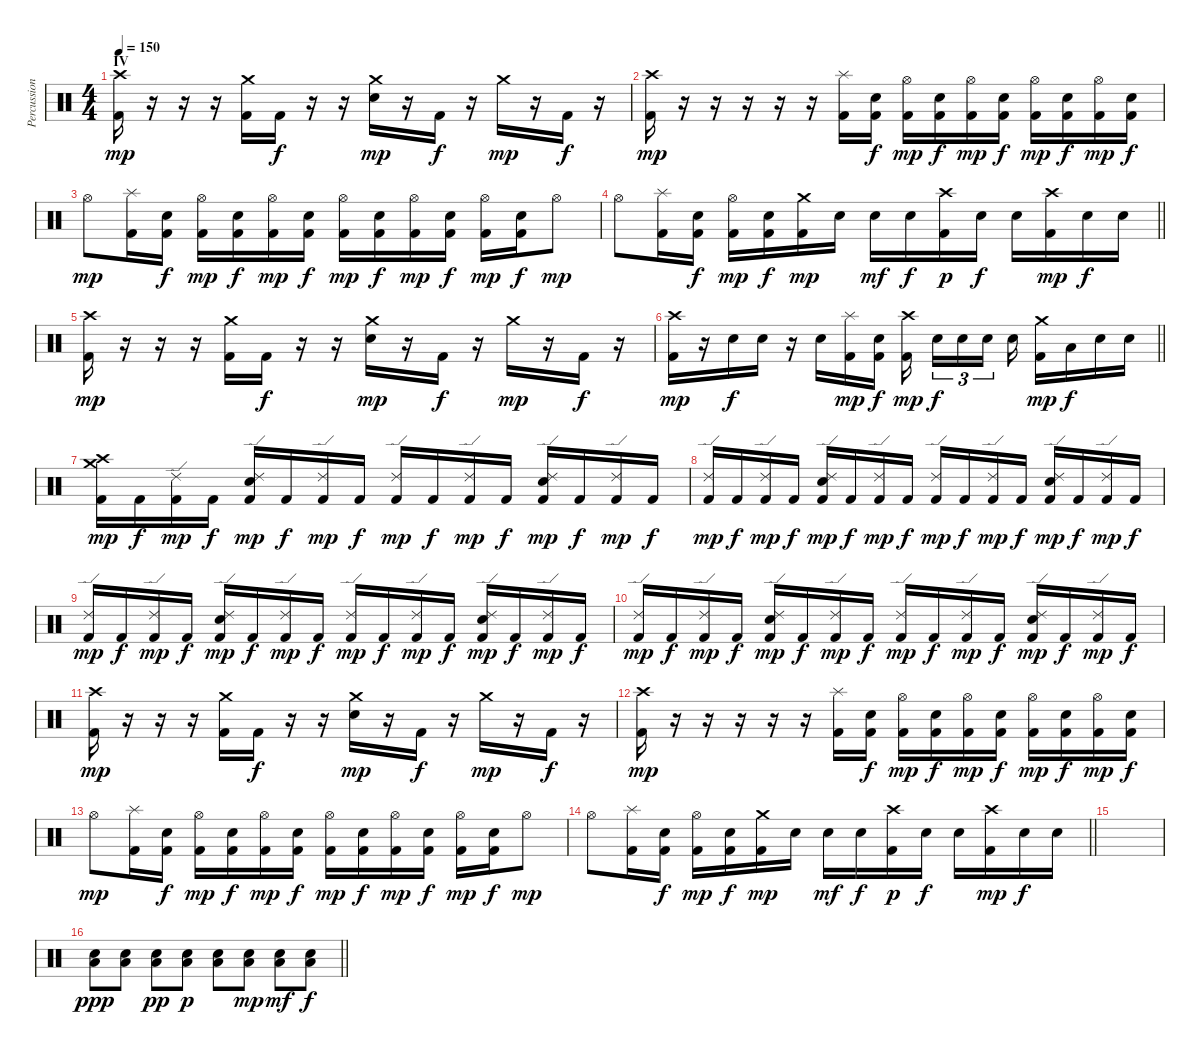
\track ("Percussion" "Percussion") {instrument percussion}
\staff {score}
\articulation defaults
\ts (4 4)
\section ("" "IV")
\tempo 150
\clef neutral
\ks c
("Crash high (hit)" "Kick (hit) 2").16{dy mp} r.16 r.16 r.16 ("Crash medium (hit)" "Kick (hit) 2").16 "Kick (hit) 2".16{dy f} r.16 r.16 ("Crash medium (hit)" "Electric Snare (hit)").16{dy mp} r.16 "Kick (hit) 2".16{dy f} r.16 "Crash medium (hit)".16{dy mp} r.16 "Kick (hit) 2".16{dy f} r.16 |
("Crash high (hit)" "Kick (hit) 2").16{dy mp} r.16 r.16 r.16 r.16 r.16 ("Splash (hit)" "Kick (hit) 2").16 ("Electric Snare (hit)" "Kick (hit) 2").16{dy f} ("Hi-Hat (open)" "Kick (hit) 2").16{dy mp} ("Electric Snare (hit)" "Kick (hit) 2").16{dy f} ("Hi-Hat (open)" "Kick (hit) 2").16{dy mp} ("Electric Snare (hit)" "Kick (hit) 2").16{dy f} ("Hi-Hat (open)" "Kick (hit) 2").16{dy mp} ("Electric Snare (hit)" "Kick (hit) 2").16{dy f} ("Hi-Hat (open)" "Kick (hit) 2").16{dy mp} ("Electric Snare (hit)" "Kick (hit) 2").16{dy f} |
"Hi-Hat (open)".8{dy mp} ("Splash (hit)" "Kick (hit) 2").16 ("Electric Snare (hit)" "Kick (hit) 2").16{dy f} ("Hi-Hat (open)" "Kick (hit) 2").16{dy mp} ("Electric Snare (hit)" "Kick (hit) 2").16{dy f} ("Hi-Hat (open)" "Kick (hit) 2").16{dy mp} ("Electric Snare (hit)" "Kick (hit) 2").16{dy f} ("Hi-Hat (open)" "Kick (hit) 2").16{dy mp} ("Electric Snare (hit)" "Kick (hit) 2").16{dy f} ("Hi-Hat (open)" "Kick (hit) 2").16{dy mp} ("Electric Snare (hit)" "Kick (hit) 2").16{dy f} ("Hi-Hat (open)" "Kick (hit) 2").16{dy mp} ("Electric Snare (hit)" "Kick (hit) 2").16{dy f} "Hi-Hat (open)".8{dy mp} |
\barLineRight lightlight "Hi-Hat (open)".8
("Splash (hit)" "Kick (hit) 2").16 ("Electric Snare (hit)" "Kick (hit) 2").16{dy f} ("Hi-Hat (open)" "Kick (hit) 2").16{dy mp} ("Electric Snare (hit)" "Kick (hit) 2").16{dy f} ("Crash medium (hit)" "Kick (hit) 2").16{dy mp} "Electric Snare (hit)".16 "Electric Snare (hit)".16{dy mf} "Electric Snare (hit)".16{dy f} ("Crash high (hit)" "Kick (hit) 2").16{dy p} "Electric Snare (hit)".16{dy f} "Electric Snare (hit)".16 ("Crash high (hit)" "Kick (hit) 2").16{dy mp} "Electric Snare (hit)".16{dy f} "Electric Snare (hit)".16 |
("Crash high (hit)" "Kick (hit) 2").16{dy mp} r.16 r.16 r.16 ("Crash medium (hit)" "Kick (hit) 2").16 "Kick (hit) 2".16{dy f} r.16 r.16 ("Crash medium (hit)" "Electric Snare (hit)").16{dy mp} r.16 "Kick (hit) 2".16{dy f} r.16 "Crash medium (hit)".16{dy mp} r.16 "Kick (hit) 2".16{dy f} r.16 |
\barLineRight lightlight
("Crash high (hit)" "Kick (hit) 2").16{dy mp} r.16 "Electric Snare (hit)".16{dy f} "Electric Snare (hit)".16 r.16 "Electric Snare (hit)".16 ("Splash (hit)" "Kick (hit) 2").16{dy mp} ("Electric Snare (hit)" "Kick (hit) 2").16{dy f} ("Crash high (hit)" "Kick (hit) 2").16{dy mp beam splitsecondary} "Electric Snare (hit)".16{tu (3 2) dy f} "Electric Snare (hit)".16{tu (3 2)} "Electric Snare (hit)".16{tu (3 2) beam splitsecondary} "Electric Snare (hit)".16 ("Crash medium (hit)" "Kick (hit) 2").16{dy mp} "Low Floor Tom (hit)".16{dy f} "Electric Snare (hit)".16 "Electric Snare (hit)".16 |
("Crash high (hit)" "Crash medium (hit)" "Kick (hit) 2").16{dy mp} "Kick (hit) 2".16{dy f} ("Ride (edge) 2" "Kick (hit) 2").16{dy mp} "Kick (hit) 2".16{dy f} ("Ride (edge) 2" "Electric Snare (hit)" "Kick (hit) 2").16{dy mp} "Kick (hit) 2".16{dy f} ("Ride (edge) 2" "Kick (hit) 2").16{dy mp} "Kick (hit) 2".16{dy f} ("Ride (edge) 2" "Kick (hit) 2").16{dy mp} "Kick (hit) 2".16{dy f} ("Ride (edge) 2" "Kick (hit) 2").16{dy mp} "Kick (hit) 2".16{dy f} ("Ride (edge) 2" "Electric Snare (hit)" "Kick (hit) 2").16{dy mp} "Kick (hit) 2".16{dy f} ("Ride (edge) 2" "Kick (hit) 2").16{dy mp} "Kick (hit) 2".16{dy f} |
("Ride (edge) 2" "Kick (hit) 2").16{dy mp} "Kick (hit) 2".16{dy f} ("Ride (edge) 2" "Kick (hit) 2").16{dy mp} "Kick (hit) 2".16{dy f} ("Ride (edge) 2" "Electric Snare (hit)" "Kick (hit) 2").16{dy mp} "Kick (hit) 2".16{dy f} ("Ride (edge) 2" "Kick (hit) 2").16{dy mp} "Kick (hit) 2".16{dy f} ("Ride (edge) 2" "Kick (hit) 2").16{dy mp} "Kick (hit) 2".16{dy f} ("Ride (edge) 2" "Kick (hit) 2").16{dy mp} "Kick (hit) 2".16{dy f} ("Ride (edge) 2" "Electric Snare (hit)" "Kick (hit) 2").16{dy mp} "Kick (hit) 2".16{dy f} ("Ride (edge) 2" "Kick (hit) 2").16{dy mp} "Kick (hit) 2".16{dy f} |
("Ride (edge) 2" "Kick (hit) 2").16{dy mp} "Kick (hit) 2".16{dy f} ("Ride (edge) 2" "Kick (hit) 2").16{dy mp} "Kick (hit) 2".16{dy f} ("Ride (edge) 2" "Electric Snare (hit)" "Kick (hit) 2").16{dy mp} "Kick (hit) 2".16{dy f} ("Ride (edge) 2" "Kick (hit) 2").16{dy mp} "Kick (hit) 2".16{dy f} ("Ride (edge) 2" "Kick (hit) 2").16{dy mp} "Kick (hit) 2".16{dy f} ("Ride (edge) 2" "Kick (hit) 2").16{dy mp} "Kick (hit) 2".16{dy f} ("Ride (edge) 2" "Electric Snare (hit)" "Kick (hit) 2").16{dy mp} "Kick (hit) 2".16{dy f} ("Ride (edge) 2" "Kick (hit) 2").16{dy mp} "Kick (hit) 2".16{dy f} |
("Ride (edge) 2" "Kick (hit) 2").16{dy mp} "Kick (hit) 2".16{dy f} ("Ride (edge) 2" "Kick (hit) 2").16{dy mp} "Kick (hit) 2".16{dy f} ("Ride (edge) 2" "Electric Snare (hit)" "Kick (hit) 2").16{dy mp} "Kick (hit) 2".16{dy f} ("Ride (edge) 2" "Kick (hit) 2").16{dy mp} "Kick (hit) 2".16{dy f} ("Ride (edge) 2" "Kick (hit) 2").16{dy mp} "Kick (hit) 2".16{dy f} ("Ride (edge) 2" "Kick (hit) 2").16{dy mp} "Kick (hit) 2".16{dy f} ("Ride (edge) 2" "Electric Snare (hit)" "Kick (hit) 2").16{dy mp} "Kick (hit) 2".16{dy f} ("Ride (edge) 2" "Kick (hit) 2").16{dy mp} "Kick (hit) 2".16{dy f} |
("Crash high (hit)" "Kick (hit) 2").16{dy mp} r.16 r.16 r.16 ("Crash medium (hit)" "Kick (hit) 2").16 "Kick (hit) 2".16{dy f} r.16 r.16 ("Crash medium (hit)" "Electric Snare (hit)").16{dy mp} r.16 "Kick (hit) 2".16{dy f} r.16 "Crash medium (hit)".16{dy mp} r.16 "Kick (hit) 2".16{dy f} r.16 |
("Crash high (hit)" "Kick (hit) 2").16{dy mp} r.16 r.16 r.16 r.16 r.16 ("Splash (hit)" "Kick (hit) 2").16 ("Electric Snare (hit)" "Kick (hit) 2").16{dy f} ("Hi-Hat (open)" "Kick (hit) 2").16{dy mp} ("Electric Snare (hit)" "Kick (hit) 2").16{dy f} ("Hi-Hat (open)" "Kick (hit) 2").16{dy mp} ("Electric Snare (hit)" "Kick (hit) 2").16{dy f} ("Hi-Hat (open)" "Kick (hit) 2").16{dy mp} ("Electric Snare (hit)" "Kick (hit) 2").16{dy f} ("Hi-Hat (open)" "Kick (hit) 2").16{dy mp} ("Electric Snare (hit)" "Kick (hit) 2").16{dy f} |
"Hi-Hat (open)".8{dy mp} ("Splash (hit)" "Kick (hit) 2").16 ("Electric Snare (hit)" "Kick (hit) 2").16{dy f} ("Hi-Hat (open)" "Kick (hit) 2").16{dy mp} ("Electric Snare (hit)" "Kick (hit) 2").16{dy f} ("Hi-Hat (open)" "Kick (hit) 2").16{dy mp} ("Electric Snare (hit)" "Kick (hit) 2").16{dy f} ("Hi-Hat (open)" "Kick (hit) 2").16{dy mp} ("Electric Snare (hit)" "Kick (hit) 2").16{dy f} ("Hi-Hat (open)" "Kick (hit) 2").16{dy mp} ("Electric Snare (hit)" "Kick (hit) 2").16{dy f} ("Hi-Hat (open)" "Kick (hit) 2").16{dy mp} ("Electric Snare (hit)" "Kick (hit) 2").16{dy f} "Hi-Hat (open)".8{dy mp} |
\barLineRight lightlight "Hi-Hat (open)".8
("Splash (hit)" "Kick (hit) 2").16 ("Electric Snare (hit)" "Kick (hit) 2").16{dy f} ("Hi-Hat (open)" "Kick (hit) 2").16{dy mp} ("Electric Snare (hit)" "Kick (hit) 2").16{dy f} ("Crash medium (hit)" "Kick (hit) 2").16{dy mp} "Electric Snare (hit)".16 "Electric Snare (hit)".16{dy mf} "Electric Snare (hit)".16{dy f} ("Crash high (hit)" "Kick (hit) 2").16{dy p} "Electric Snare (hit)".16{dy f} "Electric Snare (hit)".16 ("Crash high (hit)" "Kick (hit) 2").16{dy mp} "Electric Snare (hit)".16{dy f} "Electric Snare (hit)".16 |
|
\barLineRight lightlight
("Low Floor Tom (hit)" "Electric Snare (hit)").8{dy ppp} ("Low Floor Tom (hit)" "Electric Snare (hit)").8 ("Low Floor Tom (hit)" "Electric Snare (hit)").8{dy pp} ("Low Floor Tom (hit)" "Electric Snare (hit)").8{dy p} ("Low Floor Tom (hit)" "Electric Snare (hit)").8 ("Low Floor Tom (hit)" "Electric Snare (hit)").8{dy mp} ("Low Floor Tom (hit)" "Electric Snare (hit)").8{dy mf} ("Low Floor Tom (hit)" "Electric Snare (hit)").8{dy f}
